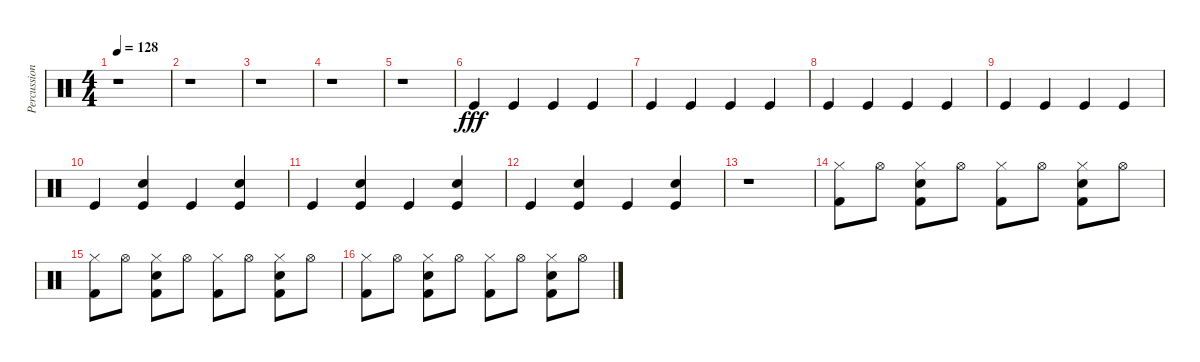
\track ("Percussion" "Percussion") {instrument percussion}
\staff {score}
\articulation defaults
\ts (4 4)
\tempo 128
\clef neutral
\ks c
r.1{dy fff} |
r.1 |
r.1 |
r.1 |
r.1 |
"Kick (hit)".4 "Kick (hit)".4 "Kick (hit)".4 "Kick (hit)".4 |
"Kick (hit)".4 "Kick (hit)".4 "Kick (hit)".4 "Kick (hit)".4 |
"Kick (hit)".4 "Kick (hit)".4 "Kick (hit)".4 "Kick (hit)".4 |
"Kick (hit)".4 "Kick (hit)".4 "Kick (hit)".4 "Kick (hit)".4 |
"Kick (hit)".4 ("Hand Clap (hit)" "Kick (hit)").4 "Kick (hit)".4 ("Hand Clap (hit)" "Kick (hit)").4 |
"Kick (hit)".4 ("Hand Clap (hit)" "Kick (hit)").4 "Kick (hit)".4 ("Kick (hit)" "Hand Clap (hit)").4 |
"Kick (hit)".4 ("Hand Clap (hit)" "Kick (hit)").4 "Kick (hit)".4 ("Kick (hit)" "Hand Clap (hit)").4 |
r.1 |
("Hi-Hat (closed)" "Kick (hit) 2").8 "Hi-Hat (open)".8 ("Hi-Hat (closed)" "Kick (hit) 2" "Hand Clap (hit)").8 "Hi-Hat (open)".8 ("Hi-Hat (closed)" "Kick (hit) 2").8 "Hi-Hat (open)".8 ("Hi-Hat (closed)" "Kick (hit) 2" "Hand Clap (hit)").8 "Hi-Hat (open)".8 |
("Hi-Hat (closed)" "Kick (hit) 2").8 "Hi-Hat (open)".8 ("Hi-Hat (closed)" "Kick (hit) 2" "Hand Clap (hit)").8 "Hi-Hat (open)".8 ("Hi-Hat (closed)" "Kick (hit) 2").8 "Hi-Hat (open)".8 ("Hi-Hat (closed)" "Kick (hit) 2" "Hand Clap (hit)").8 "Hi-Hat (open)".8 |
("Hi-Hat (closed)" "Kick (hit) 2").8 "Hi-Hat (open)".8 ("Hi-Hat (closed)" "Kick (hit) 2" "Hand Clap (hit)").8 "Hi-Hat (open)".8 ("Hi-Hat (closed)" "Kick (hit) 2").8 "Hi-Hat (open)".8 ("Hi-Hat (closed)" "Kick (hit) 2" "Hand Clap (hit)").8 "Hi-Hat (open)".8
